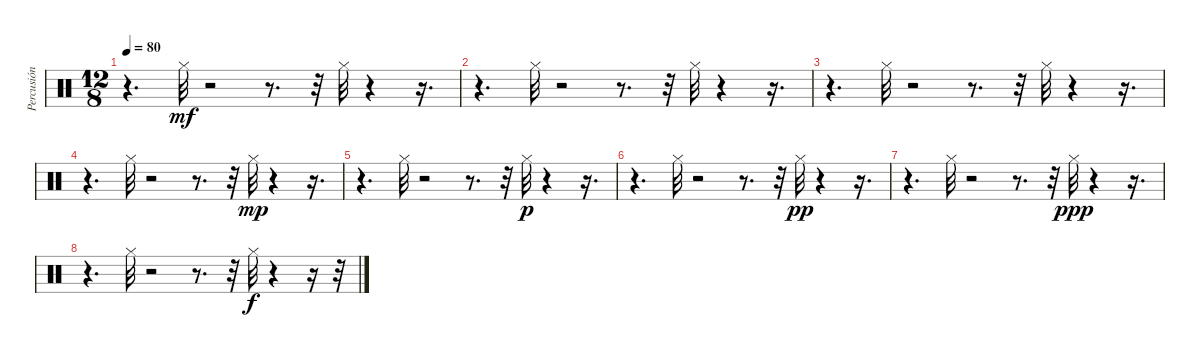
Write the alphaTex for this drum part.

\track ("Percusión" "Percusión") {instrument percussion}
\staff {score}
\articulation defaults
\ts (12 8)
\tempo 80
\clef neutral
\ks c
r.4{d dy mf} "Hi-Hat (closed)".32 r.2 r.8{d} r.32 "Hi-Hat (closed)".32 r.4 r.16{d} |
r.4{d} "Hi-Hat (closed)".32 r.2 r.8{d} r.32 "Hi-Hat (closed)".32 r.4 r.16{d} |
r.4{d} "Hi-Hat (closed)".32 r.2 r.8{d} r.32 "Hi-Hat (closed)".32 r.4 r.16{d} |
r.4{d} "Hi-Hat (closed)".32 r.2 r.8{d} r.32 "Hi-Hat (closed)".32{dy mp} r.4 r.16{d} |
r.4{d} "Hi-Hat (closed)".32 r.2 r.8{d} r.32 "Hi-Hat (closed)".32{dy p} r.4 r.16{d} |
r.4{d} "Hi-Hat (closed)".32 r.2 r.8{d} r.32 "Hi-Hat (closed)".32{dy pp} r.4 r.16{d} |
r.4{d} "Hi-Hat (closed)".32 r.2 r.8{d} r.32 "Hi-Hat (closed)".32{dy ppp} r.4 r.16{d} |
r.4{d} "Hi-Hat (closed)".32 r.2 r.8{d} r.32 "Hi-Hat (closed)".32{dy f} r.4 r.16 r.32
